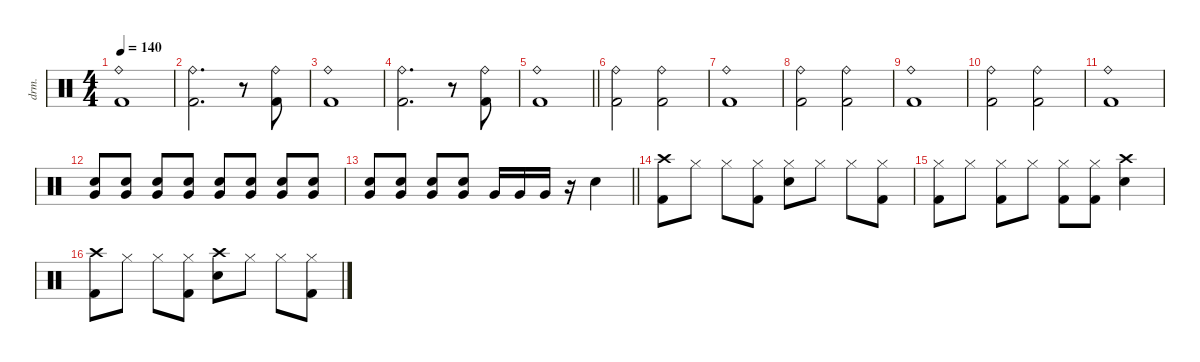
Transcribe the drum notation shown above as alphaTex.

\defaultSystemsLayout 4
\hideDynamics
\bracketExtendMode nobrackets
\otherSystemsTrackNameOrientation horizontal
\track ("Drums" "drm.") {defaultSystemsLayout 4 instrument percussion}
\staff {score}
\articulation defaults
\ts (4 4)
\tempo 140
\clef neutral
\ks c
("Ride (bell)" "Kick (hit) 2").1{dy ppp beam Down} |
("Ride (bell)" "Kick (hit) 2").2{d beam Down} r.8{beam Down} ("Ride (bell)" "Kick (hit) 2").8{beam Down} |
("Ride (bell)" "Kick (hit) 2").1{beam Down} |
("Ride (bell)" "Kick (hit) 2").2{d beam Down} r.8{beam Down} ("Ride (bell)" "Kick (hit) 2").8{beam Down} |
\barLineRight lightlight
("Ride (bell)" "Kick (hit) 2").1{beam Down} |
("Ride (bell)" "Kick (hit) 2").2{beam Down} ("Ride (bell)" "Kick (hit) 2").2{beam Down} |
("Ride (bell)" "Kick (hit) 2").1{beam Down} |
("Ride (bell)" "Kick (hit) 2").2{beam Down} ("Ride (bell)" "Kick (hit) 2").2{beam Down} |
("Ride (bell)" "Kick (hit) 2").1{beam Down} |
("Ride (bell)" "Kick (hit) 2").2{beam Down} ("Ride (bell)" "Kick (hit) 2").2{beam Down} |
("Ride (bell)" "Kick (hit) 2").1{beam Down} |
("Very Low Tom (hit)" "Snare (hit) 2").8{beam Up} ("Very Low Tom (hit)" "Snare (hit) 2").8{beam Up} ("Very Low Tom (hit)" "Snare (hit) 2").8{beam Up} ("Very Low Tom (hit)" "Snare (hit) 2").8{beam Up} ("Very Low Tom (hit)" "Snare (hit) 2").8{dy pp beam Up} ("Very Low Tom (hit)" "Snare (hit) 2").8{beam Up} ("Very Low Tom (hit)" "Snare (hit) 2").8{beam Up} ("Very Low Tom (hit)" "Snare (hit) 2").8{dy p beam Up} |
\barLineRight lightlight
("Very Low Tom (hit)" "Snare (hit) 2").8{beam Up} ("Very Low Tom (hit)" "Snare (hit) 2").8{beam Up} ("Very Low Tom (hit)" "Snare (hit) 2").8{dy mp beam Up} ("Very Low Tom (hit)" "Snare (hit) 2").8{beam Up} "Very Low Tom (hit)".16{dy mf beam Up} "Very Low Tom (hit)".16{beam Up} "Very Low Tom (hit)".16{dy f beam Up} r.16{beam Up} "Snare (hit) 2".4{dy ff beam Down} |
("Crash high (hit)" "Kick (hit) 2").8{dy f beam Down} "Hi-Hat (closed)".8{beam Down} "Hi-Hat (closed)".8{beam Down} ("Hi-Hat (closed)" "Kick (hit) 2").8{beam Down} ("Hi-Hat (closed)" "Snare (hit) 2").8{beam Down} "Hi-Hat (closed)".8{beam Down} "Hi-Hat (closed)".8{beam Down} ("Hi-Hat (closed)" "Kick (hit) 2").8{beam Down} |
("Hi-Hat (closed)" "Kick (hit) 2").8{beam Down} "Hi-Hat (closed)".8{beam Down} ("Hi-Hat (closed)" "Kick (hit) 2").8{beam Down} "Hi-Hat (closed)".8{beam Down} ("Hi-Hat (closed)" "Kick (hit) 2").8{beam Down} ("Hi-Hat (closed)" "Kick (hit) 2").8{beam Down} ("Crash high (hit)" "Snare (hit) 2").4{beam Down} |
("Crash high (hit)" "Kick (hit) 2").8{beam Down} "Hi-Hat (closed)".8{beam Down} "Hi-Hat (closed)".8{beam Down} ("Hi-Hat (closed)" "Kick (hit) 2").8{beam Down} ("Crash high (hit)" "Snare (hit) 2").8{beam Down} "Hi-Hat (closed)".8{beam Down} "Hi-Hat (closed)".8{beam Down} ("Hi-Hat (closed)" "Kick (hit) 2").8{beam Down}
